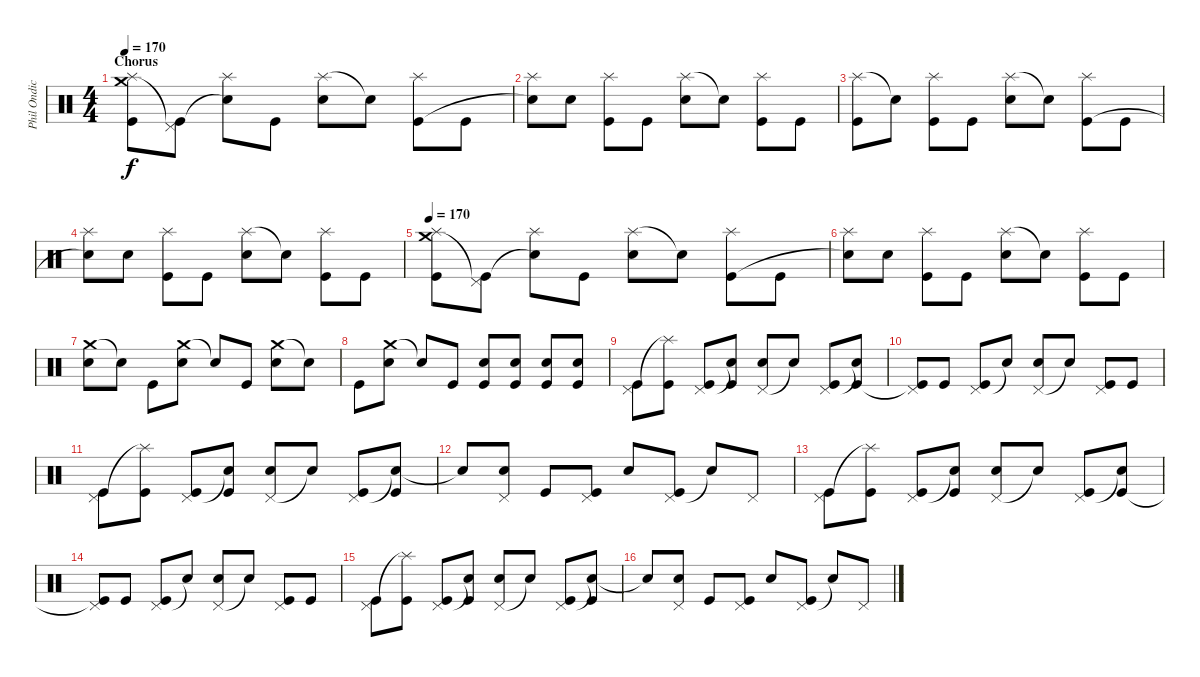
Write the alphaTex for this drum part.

\track ("Phil Ondich (Drums)" "Phil Ondic") {instrument percussion}
\staff {score}
\articulation defaults
\ts (4 4)
\section ("" "Chorus")
\tempo 170
\clef neutral
\ks c
("Crash medium (hit)" "Splash (hit)" "Kick (hit)").8{dy f} ("Pedal Hi-Hat (hit)"{t} "Kick (hit)").8 ("Splash (hit)" "Snare (hit)"{t}).8 "Kick (hit)".8 ("Splash (hit)" "Electric Snare (hit)").8 "Snare (hit)"{t}.8 ("Splash (hit)" "Kick (hit)").8 "Kick (hit)".8 |
("Splash (hit)" "Snare (hit)"{t}).8 "Electric Snare (hit)".8 ("Splash (hit)" "Kick (hit)").8 "Kick (hit)".8 ("Splash (hit)" "Electric Snare (hit)").8 "Snare (hit)"{t}.8 ("Splash (hit)" "Kick (hit)").8 "Kick (hit)".8 |
("Splash (hit)" "Kick (hit)").8 "Snare (hit)"{t}.8 ("Splash (hit)" "Kick (hit)").8 "Kick (hit)".8 ("Splash (hit)" "Electric Snare (hit)").8 "Snare (hit)"{t}.8 ("Splash (hit)" "Kick (hit)").8 "Kick (hit)".8 |
("Splash (hit)" "Snare (hit)"{t}).8 "Electric Snare (hit)".8 ("Splash (hit)" "Kick (hit)").8 "Kick (hit)".8 ("Splash (hit)" "Electric Snare (hit)").8 "Snare (hit)"{t}.8 ("Splash (hit)" "Kick (hit)").8 "Kick (hit)".8 |
\tempo 170
("Crash medium (hit)" "Splash (hit)" "Kick (hit)").8 ("Pedal Hi-Hat (hit)"{t} "Kick (hit)").8 ("Splash (hit)" "Snare (hit)"{t}).8 "Kick (hit)".8 ("Splash (hit)" "Electric Snare (hit)").8 "Snare (hit)"{t}.8 ("Splash (hit)" "Kick (hit)").8 "Kick (hit)".8 |
("Splash (hit)" "Snare (hit)"{t}).8 "Electric Snare (hit)".8 ("Splash (hit)" "Kick (hit)").8 "Kick (hit)".8 ("Splash (hit)" "Electric Snare (hit)").8 "Snare (hit)"{t}.8 ("Splash (hit)" "Kick (hit)").8 "Kick (hit)".8 |
("Crash medium (hit)" "Electric Snare (hit)").8 "Snare (hit)"{t}.8 "Kick (hit)".8 ("Crash medium (hit)" "Electric Snare (hit)").8 "Snare (hit)"{t}.8 "Kick (hit)".8 ("Crash medium (hit)" "Electric Snare (hit)").8 "Snare (hit)"{t}.8 |
"Kick (hit)".8 ("Crash medium (hit)" "Electric Snare (hit)").8 "Snare (hit)"{t}.8 "Kick (hit)".8 ("Electric Snare (hit)" "Kick (hit)").8 ("Electric Snare (hit)" "Kick (hit)").8 ("Electric Snare (hit)" "Kick (hit)").8 ("Electric Snare (hit)" "Kick (hit)").8 |
("Pedal Hi-Hat (hit)" "Kick (hit)").8 ("Splash (hit)"{t} "Kick (hit)").8 ("Pedal Hi-Hat (hit)" "Kick (hit)").8 ("Snare (hit)"{t} "Kick (hit)").8 ("Pedal Hi-Hat (hit)" "Electric Snare (hit)").8 "Snare (hit)"{t}.8 ("Pedal Hi-Hat (hit)" "Kick (hit)").8 ("Snare (hit)"{t} "Kick (hit)").8 |
("Pedal Hi-Hat (hit)" "Kick (hit)"{t}).8 "Kick (hit)".8 ("Pedal Hi-Hat (hit)" "Kick (hit)").8 "Snare (hit)"{t}.8 ("Pedal Hi-Hat (hit)" "Electric Snare (hit)").8 "Snare (hit)"{t}.8 ("Pedal Hi-Hat (hit)" "Kick (hit)").8 "Kick (hit)".8 |
("Pedal Hi-Hat (hit)" "Kick (hit)").8 ("Splash (hit)"{t} "Kick (hit)").8 ("Pedal Hi-Hat (hit)" "Kick (hit)").8 ("Snare (hit)"{t} "Kick (hit)").8 ("Pedal Hi-Hat (hit)" "Electric Snare (hit)").8 "Snare (hit)"{t}.8 ("Pedal Hi-Hat (hit)" "Kick (hit)").8 ("Snare (hit)"{t} "Kick (hit)").8 |
"Snare (hit)"{t}.8 ("Pedal Hi-Hat (hit)" "Electric Snare (hit)").8 "Kick (hit)".8 ("Pedal Hi-Hat (hit)" "Kick (hit)").8 "Electric Snare (hit)".8 ("Pedal Hi-Hat (hit)" "Kick (hit)").8 "Snare (hit)"{t}.8 "Pedal Hi-Hat (hit)".8 |
("Pedal Hi-Hat (hit)" "Kick (hit)").8 ("Splash (hit)"{t} "Kick (hit)").8 ("Pedal Hi-Hat (hit)" "Kick (hit)").8 ("Snare (hit)"{t} "Kick (hit)").8 ("Pedal Hi-Hat (hit)" "Electric Snare (hit)").8 "Snare (hit)"{t}.8 ("Pedal Hi-Hat (hit)" "Kick (hit)").8 ("Snare (hit)"{t} "Kick (hit)").8 |
("Pedal Hi-Hat (hit)" "Kick (hit)"{t}).8 "Kick (hit)".8 ("Pedal Hi-Hat (hit)" "Kick (hit)").8 "Snare (hit)"{t}.8 ("Pedal Hi-Hat (hit)" "Electric Snare (hit)").8 "Snare (hit)"{t}.8 ("Pedal Hi-Hat (hit)" "Kick (hit)").8 "Kick (hit)".8 |
("Pedal Hi-Hat (hit)" "Kick (hit)").8 ("Splash (hit)"{t} "Kick (hit)").8 ("Pedal Hi-Hat (hit)" "Kick (hit)").8 ("Snare (hit)"{t} "Kick (hit)").8 ("Pedal Hi-Hat (hit)" "Electric Snare (hit)").8 "Snare (hit)"{t}.8 ("Pedal Hi-Hat (hit)" "Kick (hit)").8 ("Snare (hit)"{t} "Kick (hit)").8 |
"Snare (hit)"{t}.8 ("Pedal Hi-Hat (hit)" "Electric Snare (hit)").8 "Kick (hit)".8 ("Pedal Hi-Hat (hit)" "Kick (hit)").8 "Electric Snare (hit)".8 ("Pedal Hi-Hat (hit)" "Kick (hit)").8 "Snare (hit)"{t}.8 "Pedal Hi-Hat (hit)".8
